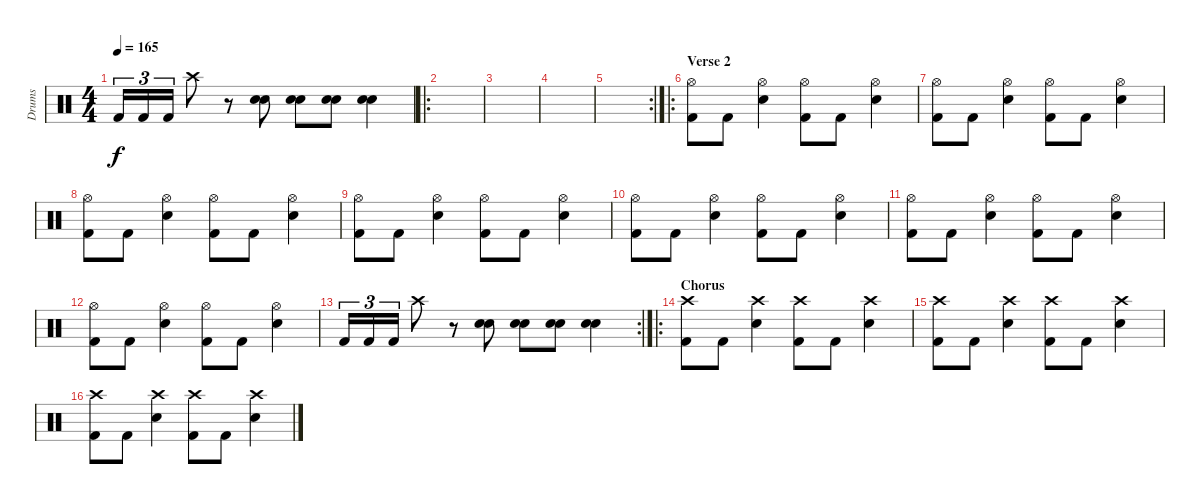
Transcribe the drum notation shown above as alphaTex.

\track ("Drums" "Drums") {instrument percussion}
\staff {score}
\articulation defaults
\ts (4 4)
\tempo 165
\clef neutral
\ks c "Kick (hit) 2".16{tu (3 2) dy f} "Kick (hit) 2".16{tu (3 2)} "Kick (hit) 2".16{tu (3 2)} "Crash high (hit)".8
r.8 ("Snare (hit) 2" "Snare (hit) 2").8 ("Snare (hit) 2" "Snare (hit) 2").8 ("Snare (hit) 2" "Snare (hit) 2").8 ("Snare (hit) 2" "Snare (hit) 2").4 |
\ro
|
|
|
\rc 2
|
\ro
\section ("" "Verse 2")
("Hi-Hat (open)" "Kick (hit) 2").8 "Kick (hit) 2".8 ("Hi-Hat (open)" "Snare (hit) 2").4 ("Hi-Hat (open)" "Kick (hit) 2").8 "Kick (hit) 2".8 ("Hi-Hat (open)" "Snare (hit) 2").4 |
("Hi-Hat (open)" "Kick (hit) 2").8 "Kick (hit) 2".8 ("Hi-Hat (open)" "Snare (hit) 2").4 ("Hi-Hat (open)" "Kick (hit) 2").8 "Kick (hit) 2".8 ("Hi-Hat (open)" "Snare (hit) 2").4 |
("Hi-Hat (open)" "Kick (hit) 2").8 "Kick (hit) 2".8 ("Hi-Hat (open)" "Snare (hit) 2").4 ("Hi-Hat (open)" "Kick (hit) 2").8 "Kick (hit) 2".8 ("Hi-Hat (open)" "Snare (hit) 2").4 |
("Hi-Hat (open)" "Kick (hit) 2").8 "Kick (hit) 2".8 ("Hi-Hat (open)" "Snare (hit) 2").4 ("Hi-Hat (open)" "Kick (hit) 2").8 "Kick (hit) 2".8 ("Hi-Hat (open)" "Snare (hit) 2").4 |
("Hi-Hat (open)" "Kick (hit) 2").8 "Kick (hit) 2".8 ("Hi-Hat (open)" "Snare (hit) 2").4 ("Hi-Hat (open)" "Kick (hit) 2").8 "Kick (hit) 2".8 ("Hi-Hat (open)" "Snare (hit) 2").4 |
("Hi-Hat (open)" "Kick (hit) 2").8 "Kick (hit) 2".8 ("Hi-Hat (open)" "Snare (hit) 2").4 ("Hi-Hat (open)" "Kick (hit) 2").8 "Kick (hit) 2".8 ("Hi-Hat (open)" "Snare (hit) 2").4 |
("Hi-Hat (open)" "Kick (hit) 2").8 "Kick (hit) 2".8 ("Hi-Hat (open)" "Snare (hit) 2").4 ("Hi-Hat (open)" "Kick (hit) 2").8 "Kick (hit) 2".8 ("Hi-Hat (open)" "Snare (hit) 2").4 |
\rc 2 "Kick (hit) 2".16{tu (3 2)} "Kick (hit) 2".16{tu (3 2)} "Kick (hit) 2".16{tu (3 2)} "Crash high (hit)".8
r.8 ("Snare (hit) 2" "Snare (hit) 2").8 ("Snare (hit) 2" "Snare (hit) 2").8 ("Snare (hit) 2" "Snare (hit) 2").8 ("Snare (hit) 2" "Snare (hit) 2").4 |
\ro
\section ("" "Chorus")
("Crash high (hit)" "Kick (hit) 2").8 "Kick (hit) 2".8 ("Crash high (hit)" "Snare (hit) 2").4 ("Crash high (hit)" "Kick (hit) 2").8 "Kick (hit) 2".8 ("Crash high (hit)" "Snare (hit) 2").4 |
("Crash high (hit)" "Kick (hit) 2").8 "Kick (hit) 2".8 ("Crash high (hit)" "Snare (hit) 2").4 ("Crash high (hit)" "Kick (hit) 2").8 "Kick (hit) 2".8 ("Crash high (hit)" "Snare (hit) 2").4 |
("Crash high (hit)" "Kick (hit) 2").8 "Kick (hit) 2".8 ("Crash high (hit)" "Snare (hit) 2").4 ("Crash high (hit)" "Kick (hit) 2").8 "Kick (hit) 2".8 ("Crash high (hit)" "Snare (hit) 2").4
